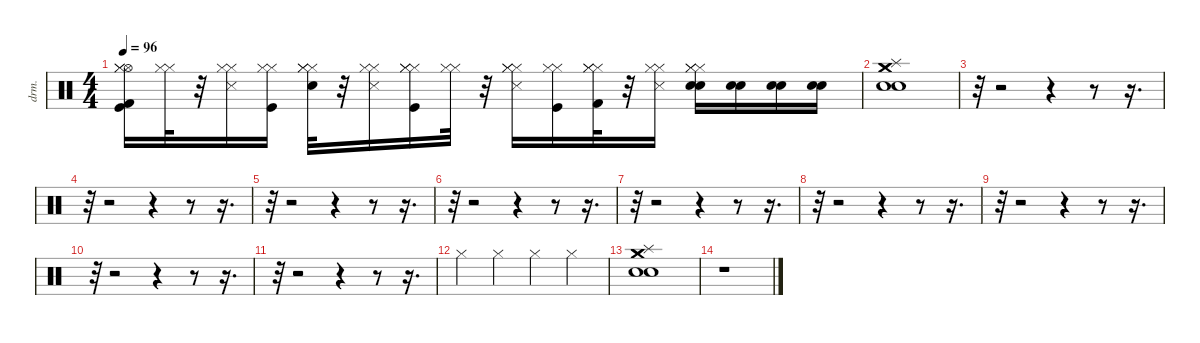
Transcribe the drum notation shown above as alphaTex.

\defaultSystemsLayout 4
\hideDynamics
\bracketExtendMode nobrackets
\otherSystemsTrackNameOrientation horizontal
\track ("Drums" "drm.") {instrument percussion}
\staff {score}
\articulation defaults
\ts (4 4)
\tempo 96
\clef neutral
\ks c
("Kick (hit)" "Kick (hit) 2" "Hi-Hat (open)" "Hi-Hat (closed)" "Hi-Hat (closed)").16{dy fff beam Down} ("Hi-Hat (closed)" "Hi-Hat (closed)").32{dy f beam Down} r.32{beam Down} ("Metronome (hit)" "Hi-Hat (closed)" "Hi-Hat (closed)").16{dy fff beam Down} ("Kick (hit)" "Hi-Hat (closed)" "Hi-Hat (closed)").16{beam Down} ("Hi-Hat (closed)" "Snare (hit) 2" "Hi-Hat (closed)" "Hi-Hat (closed)").32{beam Down} r.32{beam Down} ("Metronome (hit)" "Hi-Hat (closed)" "Hi-Hat (closed)").16{beam Down} ("Kick (hit)" "Hi-Hat (closed)" "Hi-Hat (closed)" "Hi-Hat (closed)").16{beam Down} ("Hi-Hat (closed)" "Hi-Hat (closed)").32{dy f beam Down} r.32{beam Down} ("Metronome (hit)" "Hi-Hat (closed)" "Hi-Hat (closed)" "Hi-Hat (closed)").16{dy fff beam Down} ("Kick (hit)" "Hi-Hat (closed)" "Hi-Hat (closed)").16{beam Down} ("Kick (hit) 2" "Hi-Hat (closed)" "Hi-Hat (closed)" "Hi-Hat (closed)").32{beam Down} r.32{beam Down} ("Metronome (hit)" "Hi-Hat (closed)" "Hi-Hat (closed)").16{beam Down} ("Hand Clap (hit)" "Hi-Hat (closed)" "Snare (hit) 2" "Hi-Hat (closed)" "Hi-Hat (closed)").16{beam Down} ("Snare (hit) 2" "Snare (hit) 2").16{dy f beam Down} ("Snare (hit) 2" "Snare (hit) 2").16{beam Down} ("Snare (hit) 2" "Snare (hit) 2").16{beam Down} |
("Snare (hit) 2" "Snare (hit) 2" "Splash (hit)" "Crash medium (hit)" "Crash medium (hit)").1{beam Down} |
r.32{beam Down} r.2{beam Down} r.4{beam Down} r.8{beam Down} r.16{d beam Down} |
r.32{beam Down} r.2{beam Down} r.4{beam Down} r.8{beam Down} r.16{d beam Down} |
r.32{beam Down} r.2{beam Down} r.4{beam Down} r.8{beam Down} r.16{d beam Down} |
r.32{beam Down} r.2{beam Down} r.4{beam Down} r.8{beam Down} r.16{d beam Down} |
r.32{beam Down} r.2{beam Down} r.4{beam Down} r.8{beam Down} r.16{d beam Down} |
r.32{beam Down} r.2{beam Down} r.4{beam Down} r.8{beam Down} r.16{d beam Down} |
r.32{beam Down} r.2{beam Down} r.4{beam Down} r.8{beam Down} r.16{d beam Down} |
r.32{beam Down} r.2{beam Down} r.4{beam Down} r.8{beam Down} r.16{d beam Down} |
r.32{beam Down} r.2{beam Down} r.4{beam Down} r.8{beam Down} r.16{d beam Down} |
"Hi-Hat (closed)".4{beam Down} "Hi-Hat (closed)".4{beam Down} "Hi-Hat (closed)".4{beam Down} "Hi-Hat (closed)".4{beam Down} |
("Splash (hit)" "Crash medium (hit)" "Crash medium (hit)" "Snare (hit) 2" "Snare (hit) 2").1{beam Down} |
r.1{beam Down}
